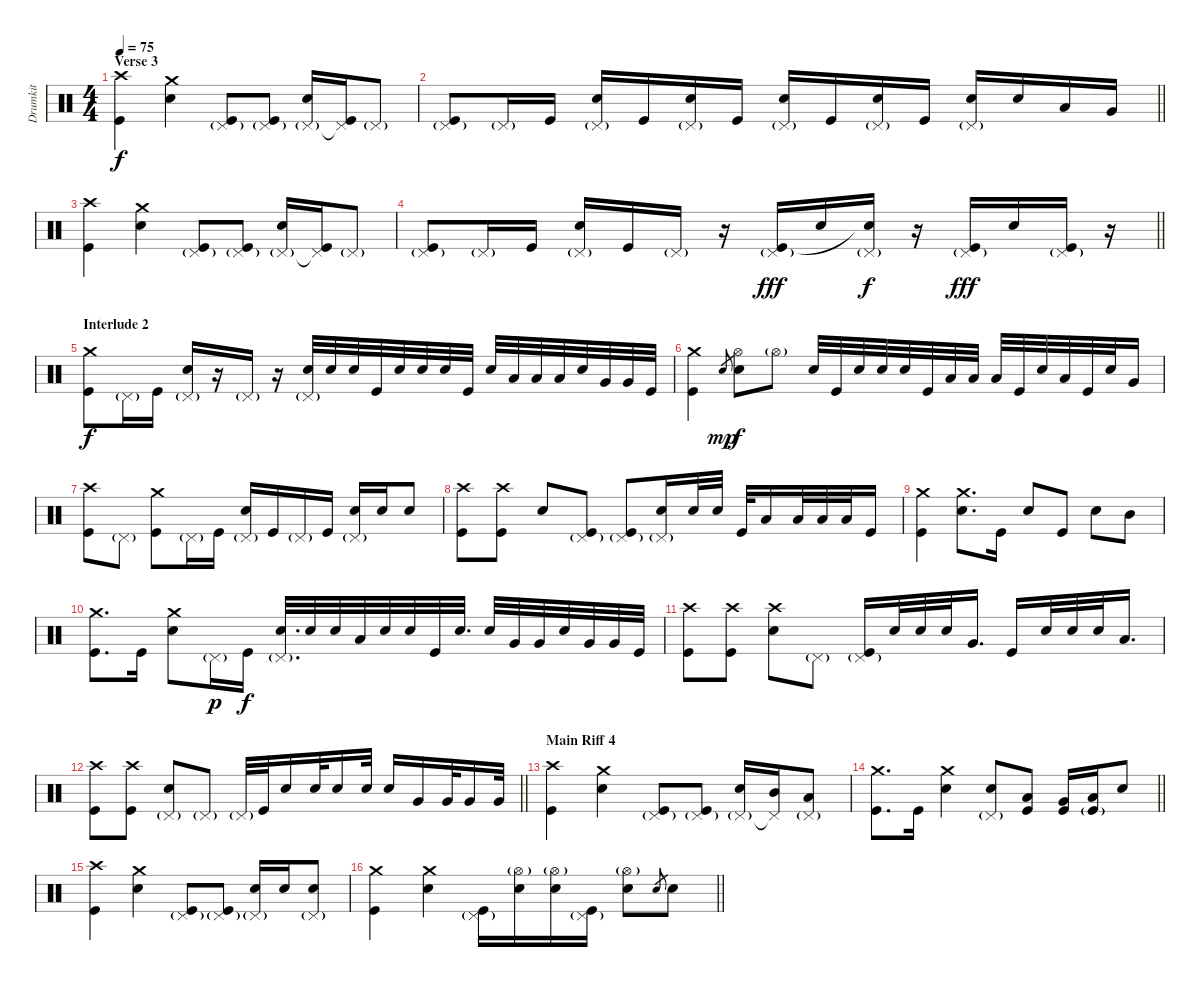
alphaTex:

\track ("Drumkit" "Drumkit") {instrument percussion}
\staff {score}
\articulation defaults
\ts (4 4)
\section ("" "Verse 3")
\tempo 75
\clef neutral
\ks c
("Crash high (hit)" "Kick (hit)").4{dy f} ("Crash medium (hit)" "Snare (hit) 2").4 ("Pedal Hi-Hat (hit)"{g} "Kick (hit)").8 ("Pedal Hi-Hat (hit)"{g} "Kick (hit)").8 ("Pedal Hi-Hat (hit)"{g} "Snare (hit) 2").16 ("Pedal Hi-Hat (hit)"{t} "Kick (hit)").16 "Pedal Hi-Hat (hit)"{g}.8 |
\barLineRight lightlight
("Pedal Hi-Hat (hit)"{g} "Kick (hit)").8 "Pedal Hi-Hat (hit)"{g}.16 "Kick (hit)".16 ("Pedal Hi-Hat (hit)"{g} "Snare (hit) 2").16 "Kick (hit)".16 ("Pedal Hi-Hat (hit)"{g} "Snare (hit) 2").16 "Kick (hit)".16 ("Pedal Hi-Hat (hit)"{g} "Snare (hit) 2").16 "Kick (hit)".16 ("Pedal Hi-Hat (hit)"{g} "Snare (hit) 2").16 "Kick (hit)".16 ("Pedal Hi-Hat (hit)"{g} "Snare (hit) 2").16 "Snare (hit) 2".16 "Low Tom (hit)".16 "Very Low Tom (hit)".16 |
("Crash high (hit)" "Kick (hit)").4 ("Crash medium (hit)" "Snare (hit) 2").4 ("Pedal Hi-Hat (hit)"{g} "Kick (hit)").8 ("Pedal Hi-Hat (hit)"{g} "Kick (hit)").8 ("Pedal Hi-Hat (hit)"{g} "Snare (hit) 2").16 ("Pedal Hi-Hat (hit)"{t} "Kick (hit)").16 "Pedal Hi-Hat (hit)"{g}.8 |
\barLineRight lightlight
("Pedal Hi-Hat (hit)"{g} "Kick (hit)").8 "Pedal Hi-Hat (hit)"{g}.16 "Kick (hit)".16 ("Pedal Hi-Hat (hit)"{g} "Snare (hit) 2").16 "Kick (hit)".16 "Pedal Hi-Hat (hit)"{g}.16 r.16 ("Pedal Hi-Hat (hit)"{g} "Kick (hit)").16{dy fff} "Snare (hit) 2".16 ("Pedal Hi-Hat (hit)"{g} "Snare (hit) 2"{t}).16{dy f} r.16 ("Pedal Hi-Hat (hit)"{g} "Kick (hit)").16{dy fff} "Snare (hit) 2".16 ("Pedal Hi-Hat (hit)"{g} "Kick (hit)").16 r.16 |
\section ("" "Interlude 2")
("Crash medium (hit)" "Kick (hit)").8{dy f} "Pedal Hi-Hat (hit)"{g}.16 "Kick (hit)".16 ("Pedal Hi-Hat (hit)"{g} "Snare (hit) 2").16 r.16 "Pedal Hi-Hat (hit)"{g}.16 r.16 ("Pedal Hi-Hat (hit)"{g} "Snare (hit) 2").32 "Snare (hit) 2".32 "Snare (hit) 2".32 "Kick (hit)".32 "Snare (hit) 2".32 "Snare (hit) 2".32 "Snare (hit) 2".32 "Kick (hit)".32 "Snare (hit) 2".32 "Low Tom (hit)".32 "Low Tom (hit)".32 "Low Tom (hit)".32 "Snare (hit) 2".32 "Very Low Tom (hit)".32 "Very Low Tom (hit)".32 "Kick (hit)".32 |
("Crash medium (hit)" "Kick (hit)").4 "Snare (hit)".8{gr dy mp} ("Hi-Hat (open)" "Snare (hit) 2").8{dy f} "Hi-Hat (open)"{g}.8 "Snare (hit) 2".32 "Kick (hit)".32 "Snare (hit) 2".32 "Snare (hit) 2".32 "Snare (hit) 2".32 "Kick (hit)".32 "Low Tom (hit)".32 "Low Tom (hit)".32 "Low Tom (hit)".32 "Kick (hit)".32 "Snare (hit) 2".32 "Low Tom (hit)".32 "Kick (hit)".32 "Snare (hit) 2".32 "Very Low Tom (hit)".16 |
("Crash high (hit)" "Kick (hit)").8 "Pedal Hi-Hat (hit)"{g}.8 ("Crash medium (hit)" "Kick (hit)").8 "Pedal Hi-Hat (hit)"{g}.16 "Kick (hit)".16 ("Pedal Hi-Hat (hit)"{g} "Snare (hit) 2").16 "Kick (hit)".16 "Pedal Hi-Hat (hit)"{g}.16 "Kick (hit)".16 ("Pedal Hi-Hat (hit)"{g} "Snare (hit) 2").16 "Snare (hit) 2".16 "Snare (hit) 2".8 |
("Crash high (hit)" "Kick (hit)").8 ("Crash high (hit)" "Kick (hit)").8 "Snare (hit) 2".8 ("Pedal Hi-Hat (hit)"{g} "Kick (hit)").8 ("Pedal Hi-Hat (hit)"{g} "Kick (hit)").8 ("Pedal Hi-Hat (hit)"{g} "Snare (hit) 2").16 "Snare (hit) 2".32 "Snare (hit) 2".32 "Kick (hit)".32 "Low Tom (hit)".16 "Low Tom (hit)".32 "Low Tom (hit)".32 "Low Tom (hit)".32 "Kick (hit)".16 |
("Crash medium (hit)" "Kick (hit)").4 ("Crash medium (hit)" "Snare (hit) 2").8{d} "Kick (hit)".16 "Snare (hit) 2".8 "Kick (hit)".8 "Snare (hit) 2".8 "Mid Tom (hit)".8 |
("Crash medium (hit)" "Kick (hit)").8{d} "Kick (hit)".16 ("Crash medium (hit)" "Snare (hit) 2").8 "Pedal Hi-Hat (hit)"{g}.16{dy p} "Kick (hit)".16{dy f} ("Pedal Hi-Hat (hit)"{g} "Snare (hit) 2").32{d} "Snare (hit) 2".32 "Snare (hit) 2".32 "Low Tom (hit)".32 "Snare (hit) 2".32 "Snare (hit) 2".32 "Kick (hit)".32 "Snare (hit) 2".32{d} "Snare (hit) 2".32 "Very Low Tom (hit)".32 "Very Low Tom (hit)".32 "Snare (hit) 2".32 "Very Low Tom (hit)".32 "Very Low Tom (hit)".32 "Kick (hit)".32 |
("Crash high (hit)" "Kick (hit)").8 ("Crash high (hit)" "Kick (hit)").8 ("Crash high (hit)" "Snare (hit) 2").8 "Pedal Hi-Hat (hit)"{g}.8 ("Pedal Hi-Hat (hit)"{g} "Kick (hit)").16 "Snare (hit) 2".32 "Snare (hit) 2".32 "Snare (hit) 2".32 "Very Low Tom (hit)".16{d} "Kick (hit)".16 "Snare (hit) 2".32 "Snare (hit) 2".32 "Snare (hit) 2".32 "Low Tom (hit)".16{d} |
\barLineRight lightlight
("Crash high (hit)" "Kick (hit)").8 ("Crash high (hit)" "Kick (hit)").8 ("Pedal Hi-Hat (hit)"{g} "Snare (hit) 2").8 "Pedal Hi-Hat (hit)"{g}.8 "Pedal Hi-Hat (hit)"{g}.32 "Kick (hit)".32 "Snare (hit) 2".16 "Snare (hit) 2".32 "Snare (hit) 2".16 "Snare (hit) 2".32 "Snare (hit) 2".16 "Very Low Tom (hit)".16 "Very Low Tom (hit)".32 "Very Low Tom (hit)".16 "Very Low Tom (hit)".32 |
\section ("" "Main Riff 4")
("Crash high (hit)" "Kick (hit)").4 ("Crash medium (hit)" "Snare (hit) 2").4 ("Pedal Hi-Hat (hit)"{g} "Kick (hit)").8 ("Pedal Hi-Hat (hit)"{g} "Kick (hit)").8 ("Pedal Hi-Hat (hit)"{g} "Snare (hit) 2").16 ("Pedal Hi-Hat (hit)"{t} "Mid Tom (hit)").16 ("Pedal Hi-Hat (hit)"{g} "Low Tom (hit)").8 |
\barLineRight lightlight
("Crash medium (hit)" "Kick (hit)").8{d} "Kick (hit)".16 ("Crash medium (hit)" "Snare (hit) 2").4 ("Pedal Hi-Hat (hit)"{g} "Snare (hit) 2").8 ("Low Tom (hit)" "Kick (hit)").8 ("Very Low Tom (hit)" "Kick (hit)").16 ("Low Floor Tom (hit)" "Kick (hit)"{g}).16 "Snare (hit) 2".8 |
("Crash high (hit)" "Kick (hit)").4 ("Crash medium (hit)" "Snare (hit) 2").4 ("Pedal Hi-Hat (hit)"{g} "Kick (hit)").8 ("Pedal Hi-Hat (hit)"{g} "Kick (hit)").8 ("Pedal Hi-Hat (hit)"{g} "Snare (hit) 2").16 "Snare (hit) 2".16 ("Pedal Hi-Hat (hit)"{g} "Snare (hit) 2").8 |
\barLineRight lightlight
("Crash medium (hit)" "Kick (hit)").4 ("Crash medium (hit)" "Snare (hit) 2").4 ("Pedal Hi-Hat (hit)"{g} "Kick (hit)").16 ("Hi-Hat (open)"{g} "Snare (hit) 2").16 ("Hi-Hat (open)"{g} "Snare (hit) 2").16 ("Pedal Hi-Hat (hit)"{g} "Kick (hit)").16 ("Hi-Hat (open)"{g} "Snare (hit) 2").8 "Snare (hit)".8{gr} "Snare (hit) 2".8
